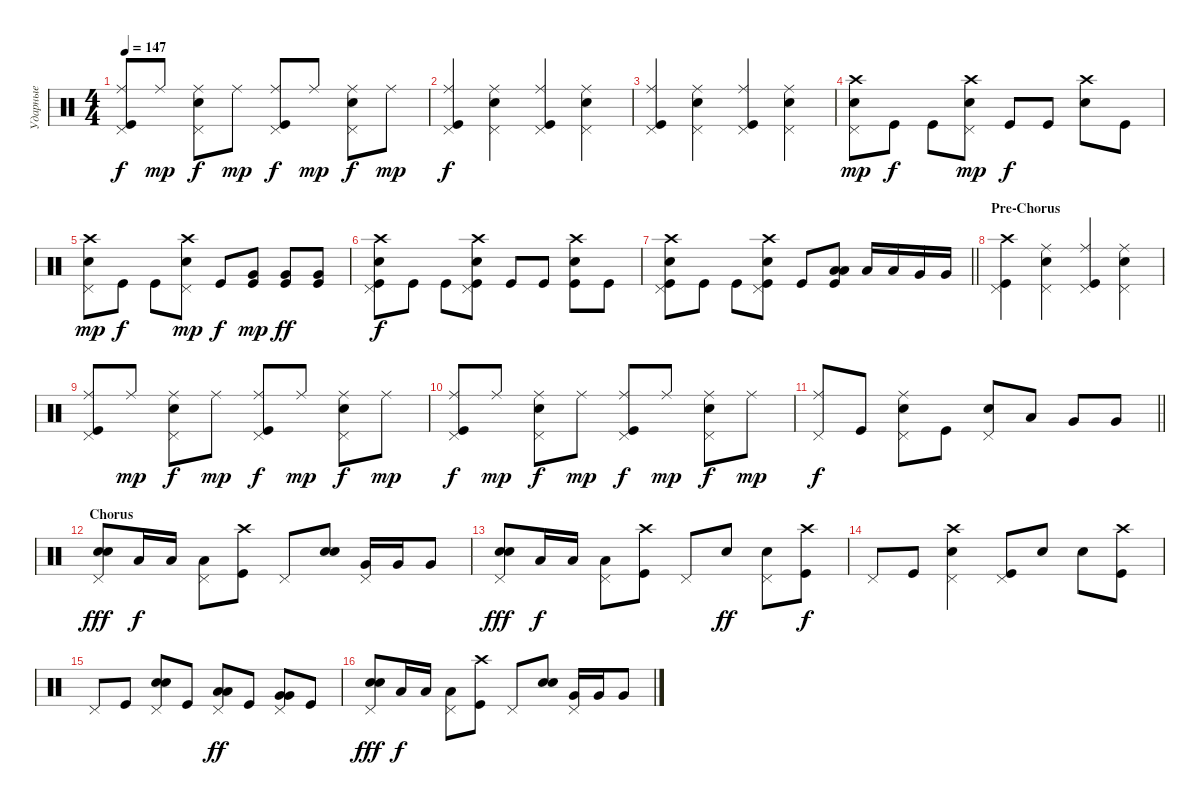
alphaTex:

\track ("Ударные" "Ударные") {instrument percussion}
\staff {score}
\articulation defaults
\ts (4 4)
\tempo 147
\clef neutral
\ks c
("Kick (hit)" "Ride (middle)" "Pedal Hi-Hat (hit)").8{dy f} "Ride (middle)".8{dy mp} ("Snare (hit) 2" "Ride (middle)" "Pedal Hi-Hat (hit)").8{dy f} "Ride (middle)".8{dy mp} ("Kick (hit)" "Pedal Hi-Hat (hit)" "Ride (middle)").8{dy f} "Ride (middle)".8{dy mp} ("Snare (hit) 2" "Pedal Hi-Hat (hit)" "Ride (middle)").8{dy f} "Ride (middle)".8{dy mp} |
("Kick (hit)" "Ride (middle)" "Pedal Hi-Hat (hit)").4{dy f} ("Snare (hit) 2" "Ride (middle)" "Pedal Hi-Hat (hit)").4 ("Kick (hit)" "Ride (middle)" "Pedal Hi-Hat (hit)").4 ("Snare (hit) 2" "Ride (middle)" "Pedal Hi-Hat (hit)").4 |
("Kick (hit)" "Ride (middle)" "Pedal Hi-Hat (hit)").4 ("Snare (hit) 2" "Ride (middle)" "Pedal Hi-Hat (hit)").4 ("Kick (hit)" "Ride (middle)" "Pedal Hi-Hat (hit)").4 ("Snare (hit) 2" "Ride (middle)" "Pedal Hi-Hat (hit)").4 |
("Snare (hit) 2" "Crash high (hit)" "Pedal Hi-Hat (hit)").8{dy mp} "Kick (hit)".8{dy f} "Kick (hit)".8 ("Snare (hit) 2" "Crash high (hit)" "Pedal Hi-Hat (hit)").8{dy mp} "Kick (hit)".8{dy f} "Kick (hit)".8 ("Snare (hit) 2" "Crash high (hit)").8 "Kick (hit)".8 |
("Snare (hit) 2" "Crash high (hit)" "Pedal Hi-Hat (hit)").8{dy mp} "Kick (hit)".8{dy f} "Kick (hit)".8 ("Snare (hit) 2" "Crash high (hit)" "Pedal Hi-Hat (hit)").8{dy mp} "Kick (hit)".8{dy f} ("Kick (hit)" "Very Low Tom (hit)").8{dy mp} ("Kick (hit)" "Very Low Tom (hit)").8{dy ff} ("Kick (hit)" "Very Low Tom (hit)").8 |
("Snare (hit) 2" "Crash high (hit)" "Kick (hit)" "Pedal Hi-Hat (hit)").8{dy f} "Kick (hit)".8 "Kick (hit)".8 ("Snare (hit) 2" "Crash high (hit)" "Kick (hit)" "Pedal Hi-Hat (hit)").8 "Kick (hit)".8 "Kick (hit)".8 ("Kick (hit)" "Snare (hit) 2" "Crash high (hit)").8 "Kick (hit)".8 |
\barLineRight lightlight
("Snare (hit) 2" "Crash high (hit)" "Kick (hit)" "Pedal Hi-Hat (hit)").8 "Kick (hit)".8 "Kick (hit)".8 ("Snare (hit) 2" "Crash high (hit)" "Kick (hit)" "Pedal Hi-Hat (hit)").8 "Kick (hit)".8 ("Low Tom (hit)" "Low Tom (hit)" "Kick (hit)").8{bd 480} "Low Tom (hit)".16 "Low Tom (hit)".16 "Very Low Tom (hit)".16 "Very Low Tom (hit)".16 |
\section ("" "Pre-Chorus")
("Kick (hit)" "Pedal Hi-Hat (hit)" "Crash high (hit)").4 ("Snare (hit) 2" "Ride (middle)" "Pedal Hi-Hat (hit)").4 ("Kick (hit)" "Ride (middle)" "Pedal Hi-Hat (hit)").4 ("Snare (hit) 2" "Ride (middle)" "Pedal Hi-Hat (hit)").4 |
("Kick (hit)" "Ride (middle)" "Pedal Hi-Hat (hit)").8 "Ride (middle)".8{dy mp} ("Snare (hit) 2" "Ride (middle)" "Pedal Hi-Hat (hit)").8{dy f} "Ride (middle)".8{dy mp} ("Kick (hit)" "Pedal Hi-Hat (hit)" "Ride (middle)").8{dy f} "Ride (middle)".8{dy mp} ("Snare (hit) 2" "Pedal Hi-Hat (hit)" "Ride (middle)").8{dy f} "Ride (middle)".8{dy mp} |
("Kick (hit)" "Ride (middle)" "Pedal Hi-Hat (hit)").8{dy f} "Ride (middle)".8{dy mp} ("Snare (hit) 2" "Ride (middle)" "Pedal Hi-Hat (hit)").8{dy f} "Ride (middle)".8{dy mp} ("Kick (hit)" "Pedal Hi-Hat (hit)" "Ride (middle)").8{dy f} "Ride (middle)".8{dy mp} ("Snare (hit) 2" "Pedal Hi-Hat (hit)" "Ride (middle)").8{dy f} "Ride (middle)".8{dy mp} |
\barLineRight lightlight
("Ride (middle)" "Pedal Hi-Hat (hit)").8{dy f} "Kick (hit)".8 ("Snare (hit) 2" "Ride (middle)" "Pedal Hi-Hat (hit)").8 "Kick (hit)".8 ("Snare (hit) 2" "Pedal Hi-Hat (hit)").8 "Low Tom (hit)".8 "Very Low Tom (hit)".8 "Very Low Tom (hit)".8 |
\section ("" "Chorus")
("Snare (hit) 2" "Snare (hit) 2" "Pedal Hi-Hat (hit)").8{bd 240 dy fff} "Low Tom (hit)".16{dy f} "Low Tom (hit)".16 ("Low Tom (hit)" "Pedal Hi-Hat (hit)").8 ("Kick (hit)" "Crash high (hit)").8 "Pedal Hi-Hat (hit)".8 ("Snare (hit) 2" "Snare (hit) 2").8{bd 240} ("Very Low Tom (hit)" "Pedal Hi-Hat (hit)").16 "Very Low Tom (hit)".16 "Very Low Tom (hit)".8 |
("Snare (hit) 2" "Snare (hit) 2" "Pedal Hi-Hat (hit)").8{bd 240 dy fff} "Low Tom (hit)".16{dy f} "Low Tom (hit)".16 ("Low Tom (hit)" "Pedal Hi-Hat (hit)").8 ("Kick (hit)" "Crash high (hit)").8 "Pedal Hi-Hat (hit)".8 "Snare (hit) 2".8{bd 240 dy ff} ("Snare (hit) 2" "Pedal Hi-Hat (hit)").8 ("Kick (hit)" "Crash high (hit)").8{dy f} |
"Pedal Hi-Hat (hit)".8 "Kick (hit)".8 ("Snare (hit) 2" "Crash high (hit)" "Pedal Hi-Hat (hit)").4 ("Kick (hit)" "Pedal Hi-Hat (hit)").8 "Snare (hit) 2".8 "Snare (hit) 2".8 ("Kick (hit)" "Crash high (hit)").8 |
"Pedal Hi-Hat (hit)".8 "Kick (hit)".8 ("Snare (hit) 2" "Snare (hit) 2" "Pedal Hi-Hat (hit)").8{bd 240} "Kick (hit)".8 ("Low Tom (hit)" "Low Tom (hit)" "Pedal Hi-Hat (hit)").8{bd 240 dy ff} "Kick (hit)".8 ("Very Low Tom (hit)" "Very Low Tom (hit)" "Pedal Hi-Hat (hit)").8{bd 240} "Kick (hit)".8 |
("Snare (hit) 2" "Snare (hit) 2" "Pedal Hi-Hat (hit)").8{bd 240 dy fff} "Low Tom (hit)".16{dy f} "Low Tom (hit)".16 ("Low Tom (hit)" "Pedal Hi-Hat (hit)").8 ("Kick (hit)" "Crash high (hit)").8 "Pedal Hi-Hat (hit)".8 ("Snare (hit) 2" "Snare (hit) 2").8{bd 240} ("Very Low Tom (hit)" "Pedal Hi-Hat (hit)").16 "Very Low Tom (hit)".16 "Very Low Tom (hit)".8
